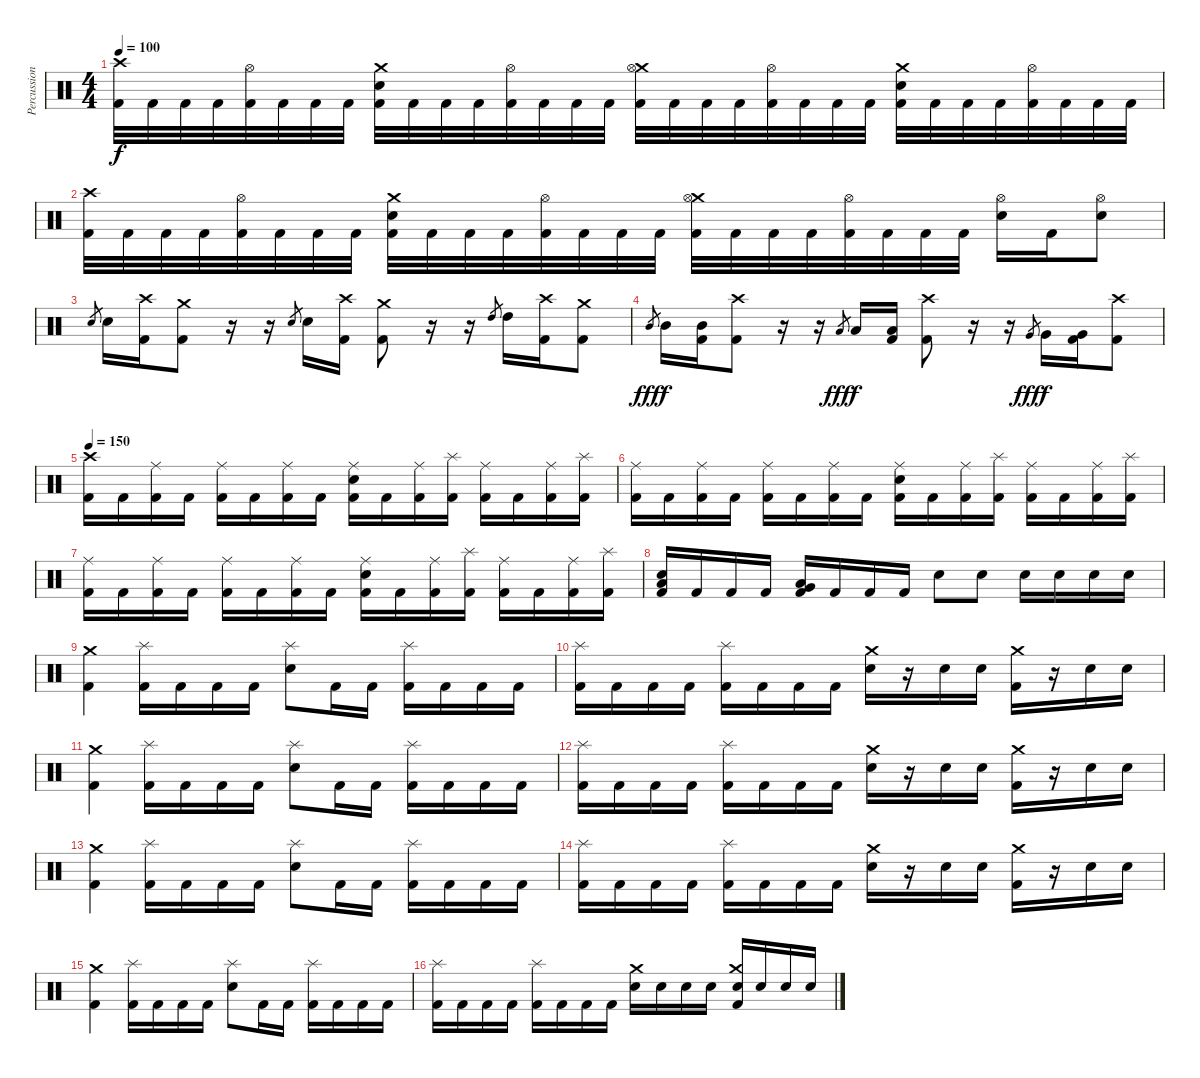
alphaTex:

\track ("Percussion" "Percussion") {instrument percussion}
\staff {score}
\articulation defaults
\ts (4 4)
\tempo 100
\clef neutral
\ks c
("Crash high (hit)" "Kick (hit) 2").32{dy f} "Kick (hit) 2".32 "Kick (hit) 2".32 "Kick (hit) 2".32 ("Hi-Hat (open)" "Kick (hit) 2").32 "Kick (hit) 2".32 "Kick (hit) 2".32 "Kick (hit) 2".32 ("Crash medium (hit)" "Snare (hit) 2" "Kick (hit) 2").32 "Kick (hit) 2".32 "Kick (hit) 2".32 "Kick (hit) 2".32 ("Hi-Hat (open)" "Kick (hit) 2").32 "Kick (hit) 2".32 "Kick (hit) 2".32 "Kick (hit) 2".32 ("Crash medium (hit)" "Hi-Hat (open)" "Kick (hit) 2").32 "Kick (hit) 2".32 "Kick (hit) 2".32 "Kick (hit) 2".32 ("Hi-Hat (open)" "Kick (hit) 2").32 "Kick (hit) 2".32 "Kick (hit) 2".32 "Kick (hit) 2".32 ("Crash medium (hit)" "Snare (hit) 2" "Kick (hit) 2").32 "Kick (hit) 2".32 "Kick (hit) 2".32 "Kick (hit) 2".32 ("Hi-Hat (open)" "Kick (hit) 2").32 "Kick (hit) 2".32 "Kick (hit) 2".32 "Kick (hit) 2".32 |
("Crash high (hit)" "Kick (hit) 2").32 "Kick (hit) 2".32 "Kick (hit) 2".32 "Kick (hit) 2".32 ("Hi-Hat (open)" "Kick (hit) 2").32 "Kick (hit) 2".32 "Kick (hit) 2".32 "Kick (hit) 2".32 ("Crash medium (hit)" "Snare (hit) 2" "Kick (hit) 2").32 "Kick (hit) 2".32 "Kick (hit) 2".32 "Kick (hit) 2".32 ("Hi-Hat (open)" "Kick (hit) 2").32 "Kick (hit) 2".32 "Kick (hit) 2".32 "Kick (hit) 2".32 ("Crash medium (hit)" "Hi-Hat (open)" "Kick (hit) 2").32 "Kick (hit) 2".32 "Kick (hit) 2".32 "Kick (hit) 2".32 ("Hi-Hat (open)" "Kick (hit) 2").32 "Kick (hit) 2".32 "Kick (hit) 2".32 "Kick (hit) 2".32 ("Hi-Hat (open)" "Snare (hit) 2").16 "Kick (hit) 2".16 ("Hi-Hat (open)" "Snare (hit) 2").8 |
"Snare (hit) 2".8{gr} "Snare (hit) 2".16 ("Crash high (hit)" "Kick (hit) 2").16 ("Crash medium (hit)" "Kick (hit) 2").8 r.16 r.16 "Snare (hit) 2".8{gr} "Snare (hit) 2".16 ("Crash high (hit)" "Kick (hit) 2").16 ("Crash medium (hit)" "Kick (hit) 2").8 r.16 r.16 "High Tom (hit)".8{gr} "High Tom (hit)".16 ("Crash high (hit)" "Kick (hit) 2").16 ("Crash medium (hit)" "Kick (hit) 2").8 |
"Mid Tom (hit)".8{gr dy fff} "Mid Tom (hit)".16{dy f} ("Mid Tom (hit)" "Kick (hit) 2").16 ("Crash high (hit)" "Kick (hit) 2").8 r.16 r.16 "Low Tom (hit)".8{gr dy fff} "Low Tom (hit)".16{dy f} ("Low Tom (hit)" "Kick (hit) 2").16 ("Crash high (hit)" "Kick (hit) 2").8 r.16 r.16 "Very Low Tom (hit)".8{gr dy fff} "Very Low Tom (hit)".16{dy f} ("Very Low Tom (hit)" "Kick (hit) 2").16 ("Crash high (hit)" "Kick (hit) 2").8 |
\tempo 150
("Crash high (hit)" "Kick (hit) 2").16 "Kick (hit) 2".16 ("Ride (middle)" "Kick (hit) 2").16 "Kick (hit) 2".16 ("Ride (middle)" "Kick (hit) 2").16 "Kick (hit) 2".16 ("Ride (middle)" "Kick (hit) 2").16 "Kick (hit) 2".16 ("Ride (middle)" "Snare (hit) 2" "Kick (hit) 2").16 "Kick (hit) 2".16 ("Ride (middle)" "Kick (hit) 2").16 ("Splash (hit)" "Kick (hit) 2").16 ("Ride (middle)" "Kick (hit) 2").16 "Kick (hit) 2".16 ("Ride (middle)" "Kick (hit) 2").16 ("Splash (hit)" "Kick (hit) 2").16 |
("Ride (middle)" "Kick (hit) 2").16 "Kick (hit) 2".16 ("Ride (middle)" "Kick (hit) 2").16 "Kick (hit) 2".16 ("Ride (middle)" "Kick (hit) 2").16 "Kick (hit) 2".16 ("Ride (middle)" "Kick (hit) 2").16 "Kick (hit) 2".16 ("Ride (middle)" "Snare (hit) 2" "Kick (hit) 2").16 "Kick (hit) 2".16 ("Ride (middle)" "Kick (hit) 2").16 ("Splash (hit)" "Kick (hit) 2").16 ("Ride (middle)" "Kick (hit) 2").16 "Kick (hit) 2".16 ("Ride (middle)" "Kick (hit) 2").16 ("Splash (hit)" "Kick (hit) 2").16 |
("Ride (middle)" "Kick (hit) 2").16 "Kick (hit) 2".16 ("Ride (middle)" "Kick (hit) 2").16 "Kick (hit) 2".16 ("Ride (middle)" "Kick (hit) 2").16 "Kick (hit) 2".16 ("Ride (middle)" "Kick (hit) 2").16 "Kick (hit) 2".16 ("Ride (middle)" "Snare (hit) 2" "Kick (hit) 2").16 "Kick (hit) 2".16 ("Ride (middle)" "Kick (hit) 2").16 ("Splash (hit)" "Kick (hit) 2").16 ("Ride (middle)" "Kick (hit) 2").16 "Kick (hit) 2".16 ("Ride (middle)" "Kick (hit) 2").16 ("Splash (hit)" "Kick (hit) 2").16 |
("Snare (hit) 2" "Low Floor Tom (hit)" "Kick (hit) 2").16 "Kick (hit) 2".16 "Kick (hit) 2".16 "Kick (hit) 2".16 ("Very Low Tom (hit)" "Low Floor Tom (hit)" "Kick (hit) 2").16 "Kick (hit) 2".16 "Kick (hit) 2".16 "Kick (hit) 2".16 "Snare (hit) 2".8 "Snare (hit) 2".8 "Snare (hit) 2".16 "Snare (hit) 2".16 "Snare (hit) 2".16 "Snare (hit) 2".16 |
("Crash medium (hit)" "Kick (hit) 2").4 ("Splash (hit)" "Kick (hit) 2").16 "Kick (hit) 2".16 "Kick (hit) 2".16 "Kick (hit) 2".16 ("Splash (hit)" "Snare (hit) 2").8 "Kick (hit) 2".16 "Kick (hit) 2".16 ("Splash (hit)" "Kick (hit) 2").16 "Kick (hit) 2".16 "Kick (hit) 2".16 "Kick (hit) 2".16 |
("Splash (hit)" "Kick (hit) 2").16 "Kick (hit) 2".16 "Kick (hit) 2".16 "Kick (hit) 2".16 ("Splash (hit)" "Kick (hit) 2").16 "Kick (hit) 2".16 "Kick (hit) 2".16 "Kick (hit) 2".16 ("Crash medium (hit)" "Snare (hit) 2").16 r.16 "Snare (hit) 2".16 "Snare (hit) 2".16 ("Crash medium (hit)" "Kick (hit) 2").16 r.16 "Snare (hit) 2".16 "Snare (hit) 2".16 |
("Crash medium (hit)" "Kick (hit) 2").4 ("Splash (hit)" "Kick (hit) 2").16 "Kick (hit) 2".16 "Kick (hit) 2".16 "Kick (hit) 2".16 ("Splash (hit)" "Snare (hit) 2").8 "Kick (hit) 2".16 "Kick (hit) 2".16 ("Splash (hit)" "Kick (hit) 2").16 "Kick (hit) 2".16 "Kick (hit) 2".16 "Kick (hit) 2".16 |
("Splash (hit)" "Kick (hit) 2").16 "Kick (hit) 2".16 "Kick (hit) 2".16 "Kick (hit) 2".16 ("Splash (hit)" "Kick (hit) 2").16 "Kick (hit) 2".16 "Kick (hit) 2".16 "Kick (hit) 2".16 ("Crash medium (hit)" "Snare (hit) 2").16 r.16 "Snare (hit) 2".16 "Snare (hit) 2".16 ("Crash medium (hit)" "Kick (hit) 2").16 r.16 "Snare (hit) 2".16 "Snare (hit) 2".16 |
("Crash medium (hit)" "Kick (hit) 2").4 ("Splash (hit)" "Kick (hit) 2").16 "Kick (hit) 2".16 "Kick (hit) 2".16 "Kick (hit) 2".16 ("Splash (hit)" "Snare (hit) 2").8 "Kick (hit) 2".16 "Kick (hit) 2".16 ("Splash (hit)" "Kick (hit) 2").16 "Kick (hit) 2".16 "Kick (hit) 2".16 "Kick (hit) 2".16 |
("Splash (hit)" "Kick (hit) 2").16 "Kick (hit) 2".16 "Kick (hit) 2".16 "Kick (hit) 2".16 ("Splash (hit)" "Kick (hit) 2").16 "Kick (hit) 2".16 "Kick (hit) 2".16 "Kick (hit) 2".16 ("Crash medium (hit)" "Snare (hit) 2").16 r.16 "Snare (hit) 2".16 "Snare (hit) 2".16 ("Crash medium (hit)" "Kick (hit) 2").16 r.16 "Snare (hit) 2".16 "Snare (hit) 2".16 |
("Crash medium (hit)" "Kick (hit) 2").4 ("Splash (hit)" "Kick (hit) 2").16 "Kick (hit) 2".16 "Kick (hit) 2".16 "Kick (hit) 2".16 ("Splash (hit)" "Snare (hit) 2").8 "Kick (hit) 2".16 "Kick (hit) 2".16 ("Splash (hit)" "Kick (hit) 2").16 "Kick (hit) 2".16 "Kick (hit) 2".16 "Kick (hit) 2".16 |
("Splash (hit)" "Kick (hit) 2").16 "Kick (hit) 2".16 "Kick (hit) 2".16 "Kick (hit) 2".16 ("Splash (hit)" "Kick (hit) 2").16 "Kick (hit) 2".16 "Kick (hit) 2".16 "Kick (hit) 2".16 ("Crash medium (hit)" "Snare (hit) 2").16 "Snare (hit) 2".16 "Snare (hit) 2".16 "Snare (hit) 2".16 ("Crash medium (hit)" "Snare (hit) 2" "Kick (hit) 2").16 "Snare (hit) 2".16 "Snare (hit) 2".16 "Snare (hit) 2".16
